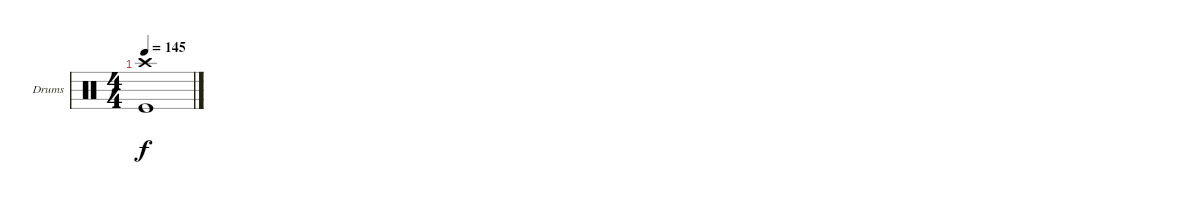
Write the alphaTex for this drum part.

\defaultSystemsLayout 4
\bracketExtendMode groupsimilarinstruments
\firstSystemTrackNameOrientation horizontal
\otherSystemsTrackNameOrientation horizontal
\track ("Drumkit" "Drums") {instrument percussion}
\staff {score}
\articulation defaults
\ts (4 4)
\tempo 145
\clef neutral
\ks c
("Kick (hit)" "Crash high (hit)").1{dy f}
